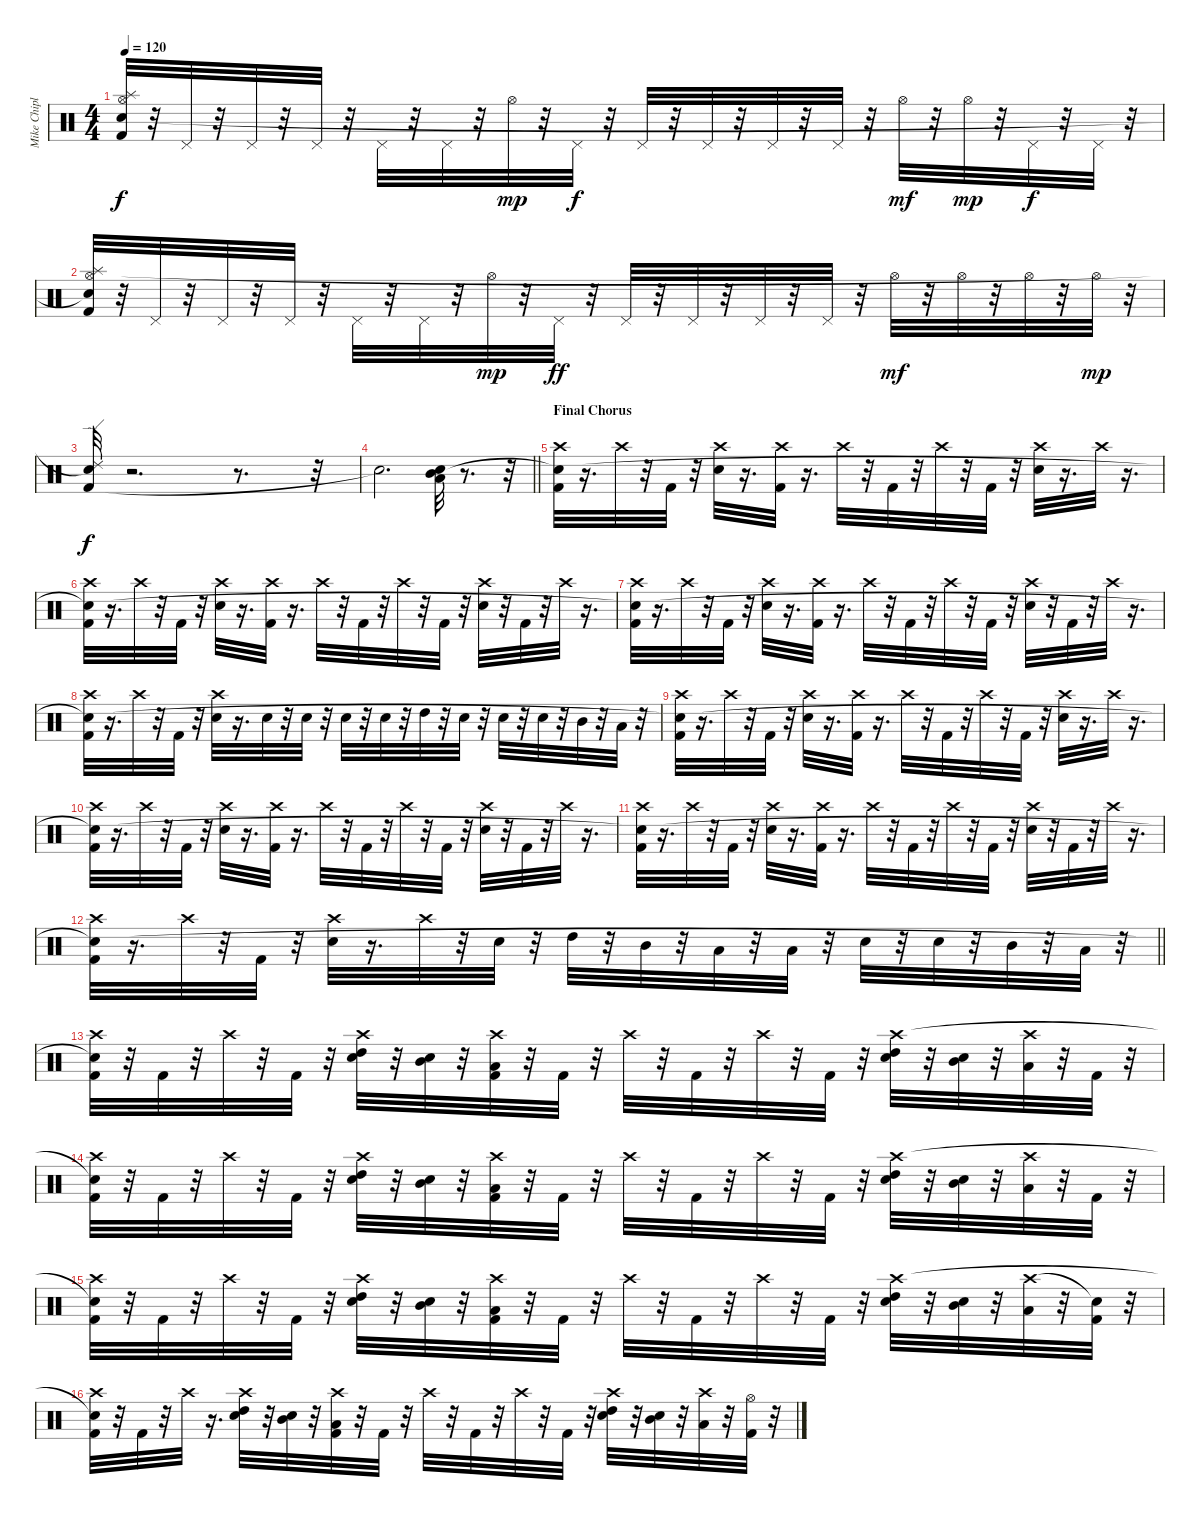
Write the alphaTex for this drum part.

\track ("Mike Chiplin - Drums" "Mike Chipl") {instrument percussion}
\staff {score}
\articulation defaults
\ts (4 4)
\tempo 120
\clef neutral
\ks c
("Kick (hit) 2" "Hi-Hat (open)" "Splash (hit)" "Snare (hit)"{t}).32{dy f} r.32 "Pedal Hi-Hat (hit)".32 r.32 "Pedal Hi-Hat (hit)".32 r.32 "Pedal Hi-Hat (hit)".32 r.32 "Pedal Hi-Hat (hit)".32 r.32 "Pedal Hi-Hat (hit)".32 r.32 "Hi-Hat (open)".32{dy mp} r.32 "Pedal Hi-Hat (hit)".32{dy f} r.32 "Pedal Hi-Hat (hit)".32 r.32 "Pedal Hi-Hat (hit)".32 r.32 "Pedal Hi-Hat (hit)".32 r.32 "Pedal Hi-Hat (hit)".32 r.32 "Hi-Hat (open)".32{dy mf} r.32 "Hi-Hat (open)".32{dy mp} r.32 "Pedal Hi-Hat (hit)".32{dy f} r.32 "Pedal Hi-Hat (hit)".32 r.32 |
("Kick (hit) 2" "Hi-Hat (open)" "Splash (hit)" "Snare (hit)"{t}).32 r.32 "Pedal Hi-Hat (hit)".32 r.32 "Pedal Hi-Hat (hit)".32 r.32 "Pedal Hi-Hat (hit)".32 r.32 "Pedal Hi-Hat (hit)".32 r.32 "Pedal Hi-Hat (hit)".32 r.32 "Hi-Hat (open)".32{dy mp} r.32 "Pedal Hi-Hat (hit)".32{dy ff} r.32 "Pedal Hi-Hat (hit)".32 r.32 "Pedal Hi-Hat (hit)".32 r.32 "Pedal Hi-Hat (hit)".32 r.32 "Pedal Hi-Hat (hit)".32 r.32 "Hi-Hat (open)".32{dy mf} r.32 "Hi-Hat (open)".32 r.32 "Hi-Hat (open)".32 r.32 "Hi-Hat (open)".32{dy mp} r.32 |
("Kick (hit) 2" "Ride (edge) 2" "Snare (hit)"{t}).32{dy f} r.2{d} r.8{d} r.32 |
\barLineRight lightlight "Snare (hit)"{t}.2{d}
("Snare (hit) 2" "Low Tom (hit)" "Mid Tom (hit)").32 r.8{d} r.32 |
\section ("" "Final Chorus")
("Kick (hit) 2" "Crash high (hit)" "Snare (hit)"{t}).32 r.16{d} "Crash high (hit)".32 r.32 "Kick (hit) 2".32 r.32 ("Snare (hit) 2" "Crash high (hit)").32 r.16{d} ("Kick (hit) 2" "Crash high (hit)").32 r.16{d} "Crash high (hit)".32 r.32 "Kick (hit) 2".32 r.32 "Crash high (hit)".32 r.32 "Kick (hit) 2".32 r.32 ("Snare (hit) 2" "Crash high (hit)").32 r.16{d} "Crash high (hit)".32 r.16{d} |
("Kick (hit) 2" "Crash high (hit)" "Snare (hit)"{t}).32 r.16{d} "Crash high (hit)".32 r.32 "Kick (hit) 2".32 r.32 ("Snare (hit) 2" "Crash high (hit)").32 r.16{d} ("Kick (hit) 2" "Crash high (hit)").32 r.16{d} "Crash high (hit)".32 r.32 "Kick (hit) 2".32 r.32 "Crash high (hit)".32 r.32 "Kick (hit) 2".32 r.32 ("Snare (hit) 2" "Crash high (hit)").32 r.32 "Kick (hit) 2".32 r.32 "Crash high (hit)".32 r.16{d} |
("Kick (hit) 2" "Crash high (hit)" "Snare (hit)"{t}).32 r.16{d} "Crash high (hit)".32 r.32 "Kick (hit) 2".32 r.32 ("Snare (hit) 2" "Crash high (hit)").32 r.16{d} ("Kick (hit) 2" "Crash high (hit)").32 r.16{d} "Crash high (hit)".32 r.32 "Kick (hit) 2".32 r.32 "Crash high (hit)".32 r.32 "Kick (hit) 2".32 r.32 ("Snare (hit) 2" "Crash high (hit)").32 r.32 "Kick (hit) 2".32 r.32 "Crash high (hit)".32 r.16{d} |
("Kick (hit) 2" "Crash high (hit)" "Snare (hit)"{t}).32 r.16{d} "Crash high (hit)".32 r.32 "Kick (hit) 2".32 r.32 ("Snare (hit) 2" "Crash high (hit)").32 r.16{d} "Snare (hit) 2".32 r.32 "Snare (hit) 2".32 r.32 "Snare (hit) 2".32 r.32 "Snare (hit) 2".32 r.32 "High Tom (hit)".32 r.32 "Snare (hit) 2".32 r.32 "Snare (hit) 2".32 r.32 "Snare (hit) 2".32 r.32 "Mid Tom (hit)".32 r.32 "Low Tom (hit)".32 r.32 |
("Kick (hit) 2" "Crash high (hit)" "Snare (hit)"{t}).32 r.16{d} "Crash high (hit)".32 r.32 "Kick (hit) 2".32 r.32 ("Snare (hit) 2" "Crash high (hit)").32 r.16{d} ("Kick (hit) 2" "Crash high (hit)").32 r.16{d} "Crash high (hit)".32 r.32 "Kick (hit) 2".32 r.32 "Crash high (hit)".32 r.32 "Kick (hit) 2".32 r.32 ("Snare (hit) 2" "Crash high (hit)").32 r.16{d} "Crash high (hit)".32 r.16{d} |
("Kick (hit) 2" "Crash high (hit)" "Snare (hit)"{t}).32 r.16{d} "Crash high (hit)".32 r.32 "Kick (hit) 2".32 r.32 ("Snare (hit) 2" "Crash high (hit)").32 r.16{d} ("Kick (hit) 2" "Crash high (hit)").32 r.16{d} "Crash high (hit)".32 r.32 "Kick (hit) 2".32 r.32 "Crash high (hit)".32 r.32 "Kick (hit) 2".32 r.32 ("Snare (hit) 2" "Crash high (hit)").32 r.32 "Kick (hit) 2".32 r.32 "Crash high (hit)".32 r.16{d} |
("Kick (hit) 2" "Crash high (hit)" "Snare (hit)"{t}).32 r.16{d} "Crash high (hit)".32 r.32 "Kick (hit) 2".32 r.32 ("Snare (hit) 2" "Crash high (hit)").32 r.16{d} ("Kick (hit) 2" "Crash high (hit)").32 r.16{d} "Crash high (hit)".32 r.32 "Kick (hit) 2".32 r.32 "Crash high (hit)".32 r.32 "Kick (hit) 2".32 r.32 ("Snare (hit) 2" "Crash high (hit)").32 r.32 "Kick (hit) 2".32 r.32 "Crash high (hit)".32 r.16{d} |
\barLineRight lightlight
("Kick (hit) 2" "Crash high (hit)" "Snare (hit)"{t}).32 r.16{d} "Crash high (hit)".32 r.32 "Kick (hit) 2".32 r.32 ("Snare (hit) 2" "Crash high (hit)").32 r.16{d} "Crash high (hit)".32 r.32 "Snare (hit) 2".32 r.32 "High Tom (hit)".32 r.32 "Mid Tom (hit)".32 r.32 "Low Tom (hit)".32 r.32 "Low Tom (hit)".32 r.32 "Snare (hit) 2".32 r.32 "Snare (hit) 2".32 r.32 "Mid Tom (hit)".32 r.32 "Low Tom (hit)".32 r.32 |
("Kick (hit) 2" "Crash high (hit)" "Snare (hit)"{t}).32 r.32 "Kick (hit) 2".32 r.32 "Crash high (hit)".32 r.32 "Kick (hit) 2".32 r.32 ("Snare (hit) 2" "High Tom (hit)" "Crash high (hit)").32 r.32 ("Snare (hit) 2" "Mid Tom (hit)").32 r.32 ("Kick (hit) 2" "Low Tom (hit)" "Crash high (hit)").32 r.32 "Kick (hit) 2".32 r.32 "Crash high (hit)".32 r.32 "Kick (hit) 2".32 r.32 "Crash high (hit)".32 r.32 "Kick (hit) 2".32 r.32 ("Snare (hit) 2" "High Tom (hit)" "Crash high (hit)").32 r.32 ("Snare (hit) 2" "Mid Tom (hit)").32 r.32 ("Low Tom (hit)" "Crash high (hit)").32 r.32 "Kick (hit) 2".32 r.32 |
("Kick (hit) 2" "Crash high (hit)" "Snare (hit)"{t}).32 r.32 "Kick (hit) 2".32 r.32 "Crash high (hit)".32 r.32 "Kick (hit) 2".32 r.32 ("Snare (hit) 2" "High Tom (hit)" "Crash high (hit)").32 r.32 ("Snare (hit) 2" "Mid Tom (hit)").32 r.32 ("Kick (hit) 2" "Low Tom (hit)" "Crash high (hit)").32 r.32 "Kick (hit) 2".32 r.32 "Crash high (hit)".32 r.32 "Kick (hit) 2".32 r.32 "Crash high (hit)".32 r.32 "Kick (hit) 2".32 r.32 ("Snare (hit) 2" "High Tom (hit)" "Crash high (hit)").32 r.32 ("Snare (hit) 2" "Mid Tom (hit)").32 r.32 ("Low Tom (hit)" "Crash high (hit)").32 r.32 "Kick (hit) 2".32 r.32 |
("Kick (hit) 2" "Crash high (hit)" "Snare (hit)"{t}).32 r.32 "Kick (hit) 2".32 r.32 "Crash high (hit)".32 r.32 "Kick (hit) 2".32 r.32 ("Snare (hit) 2" "High Tom (hit)" "Crash high (hit)").32 r.32 ("Snare (hit) 2" "Mid Tom (hit)").32 r.32 ("Kick (hit) 2" "Low Tom (hit)" "Crash high (hit)").32 r.32 "Kick (hit) 2".32 r.32 "Crash high (hit)".32 r.32 "Kick (hit) 2".32 r.32 "Crash high (hit)".32 r.32 "Kick (hit) 2".32 r.32 ("Snare (hit) 2" "High Tom (hit)" "Crash high (hit)").32 r.32 ("Snare (hit) 2" "Mid Tom (hit)").32 r.32 ("Low Tom (hit)" "Crash high (hit)").32 r.32 ("Kick (hit) 2" "Snare (hit)"{t}).32 r.32 |
("Kick (hit) 2" "Crash high (hit)" "Snare (hit)"{t}).32 r.32 "Kick (hit) 2".32 r.32 "Crash high (hit)".32 r.16{d} ("Snare (hit) 2" "High Tom (hit)" "Crash high (hit)").32 r.32 ("Snare (hit) 2" "Mid Tom (hit)").32 r.32 ("Kick (hit) 2" "Low Tom (hit)" "Crash high (hit)").32 r.32 "Kick (hit) 2".32 r.32 "Crash high (hit)".32 r.32 "Kick (hit) 2".32 r.32 "Crash high (hit)".32 r.32 "Kick (hit) 2".32 r.32 ("Snare (hit) 2" "High Tom (hit)" "Crash high (hit)").32 r.32 ("Snare (hit) 2" "Mid Tom (hit)").32 r.32 ("Low Tom (hit)" "Crash high (hit)").32 r.32 ("Kick (hit) 2" "Hi-Hat (open)").32 r.32
